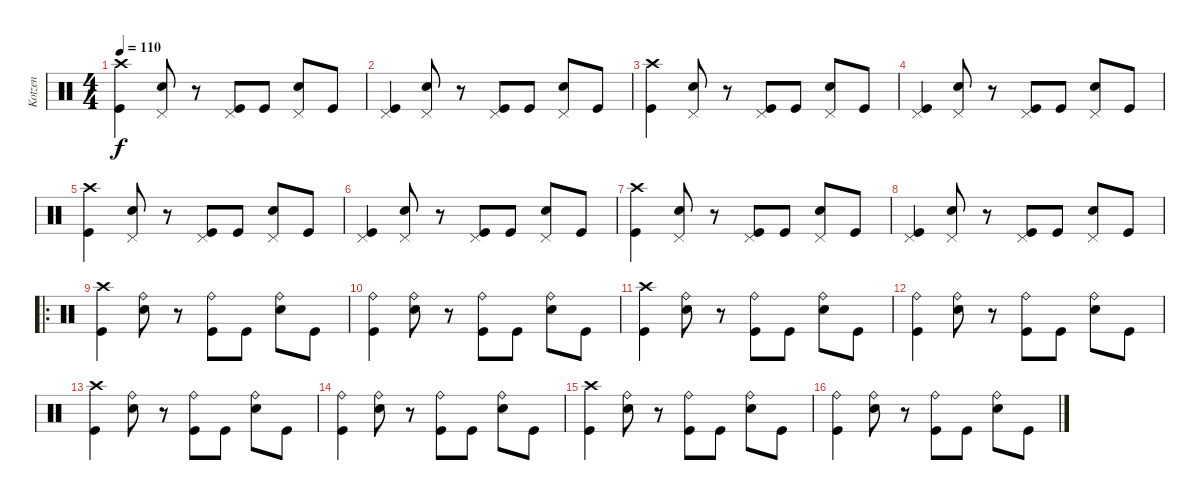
\track ("Kotzen" "Kotzen") {instrument percussion}
\staff {score}
\articulation defaults
\ts (4 4)
\tempo 110
\clef neutral
\ks c
("Crash high (hit)" "Kick (hit)").4{dy f} ("Pedal Hi-Hat (hit)" "Snare (hit) 2").8 r.8 ("Pedal Hi-Hat (hit)" "Kick (hit)").8 "Kick (hit)".8 ("Pedal Hi-Hat (hit)" "Snare (hit) 2").8 "Kick (hit)".8 |
("Pedal Hi-Hat (hit)" "Kick (hit)").4 ("Pedal Hi-Hat (hit)" "Snare (hit) 2").8 r.8 ("Pedal Hi-Hat (hit)" "Kick (hit)").8 "Kick (hit)".8 ("Pedal Hi-Hat (hit)" "Snare (hit) 2").8 "Kick (hit)".8 |
("Crash high (hit)" "Kick (hit)").4 ("Pedal Hi-Hat (hit)" "Snare (hit) 2").8 r.8 ("Pedal Hi-Hat (hit)" "Kick (hit)").8 "Kick (hit)".8 ("Pedal Hi-Hat (hit)" "Snare (hit) 2").8 "Kick (hit)".8 |
("Pedal Hi-Hat (hit)" "Kick (hit)").4 ("Pedal Hi-Hat (hit)" "Snare (hit) 2").8 r.8 ("Pedal Hi-Hat (hit)" "Kick (hit)").8 "Kick (hit)".8 ("Pedal Hi-Hat (hit)" "Snare (hit) 2").8 "Kick (hit)".8 |
("Crash high (hit)" "Kick (hit)").4 ("Pedal Hi-Hat (hit)" "Snare (hit) 2").8 r.8 ("Pedal Hi-Hat (hit)" "Kick (hit)").8 "Kick (hit)".8 ("Pedal Hi-Hat (hit)" "Snare (hit) 2").8 "Kick (hit)".8 |
("Pedal Hi-Hat (hit)" "Kick (hit)").4 ("Pedal Hi-Hat (hit)" "Snare (hit) 2").8 r.8 ("Pedal Hi-Hat (hit)" "Kick (hit)").8 "Kick (hit)".8 ("Pedal Hi-Hat (hit)" "Snare (hit) 2").8 "Kick (hit)".8 |
("Crash high (hit)" "Kick (hit)").4 ("Pedal Hi-Hat (hit)" "Snare (hit) 2").8 r.8 ("Pedal Hi-Hat (hit)" "Kick (hit)").8 "Kick (hit)".8 ("Pedal Hi-Hat (hit)" "Snare (hit) 2").8 "Kick (hit)".8 |
("Pedal Hi-Hat (hit)" "Kick (hit)").4 ("Pedal Hi-Hat (hit)" "Snare (hit) 2").8 r.8 ("Pedal Hi-Hat (hit)" "Kick (hit)").8 "Kick (hit)".8 ("Pedal Hi-Hat (hit)" "Snare (hit) 2").8 "Kick (hit)".8 |
\ro
("Crash high (hit)" "Kick (hit)").4 ("Ride (bell)" "Snare (hit) 2").8 r.8 ("Ride (bell)" "Kick (hit)").8 "Kick (hit)".8 ("Ride (bell)" "Snare (hit) 2").8 "Kick (hit)".8 |
("Ride (bell)" "Kick (hit)").4 ("Ride (bell)" "Snare (hit) 2").8 r.8 ("Ride (bell)" "Kick (hit)").8 "Kick (hit)".8 ("Ride (bell)" "Snare (hit) 2").8 "Kick (hit)".8 |
("Crash high (hit)" "Kick (hit)").4 ("Ride (bell)" "Snare (hit) 2").8 r.8 ("Ride (bell)" "Kick (hit)").8 "Kick (hit)".8 ("Ride (bell)" "Snare (hit) 2").8 "Kick (hit)".8 |
("Ride (bell)" "Kick (hit)").4 ("Ride (bell)" "Snare (hit) 2").8 r.8 ("Ride (bell)" "Kick (hit)").8 "Kick (hit)".8 ("Ride (bell)" "Snare (hit) 2").8 "Kick (hit)".8 |
("Crash high (hit)" "Kick (hit)").4 ("Ride (bell)" "Snare (hit) 2").8 r.8 ("Ride (bell)" "Kick (hit)").8 "Kick (hit)".8 ("Ride (bell)" "Snare (hit) 2").8 "Kick (hit)".8 |
("Ride (bell)" "Kick (hit)").4 ("Ride (bell)" "Snare (hit) 2").8 r.8 ("Ride (bell)" "Kick (hit)").8 "Kick (hit)".8 ("Ride (bell)" "Snare (hit) 2").8 "Kick (hit)".8 |
("Crash high (hit)" "Kick (hit)").4 ("Ride (bell)" "Snare (hit) 2").8 r.8 ("Ride (bell)" "Kick (hit)").8 "Kick (hit)".8 ("Ride (bell)" "Snare (hit) 2").8 "Kick (hit)".8 |
("Ride (bell)" "Kick (hit)").4 ("Ride (bell)" "Snare (hit) 2").8 r.8 ("Ride (bell)" "Kick (hit)").8 "Kick (hit)".8 ("Ride (bell)" "Snare (hit) 2").8 "Kick (hit)".8
